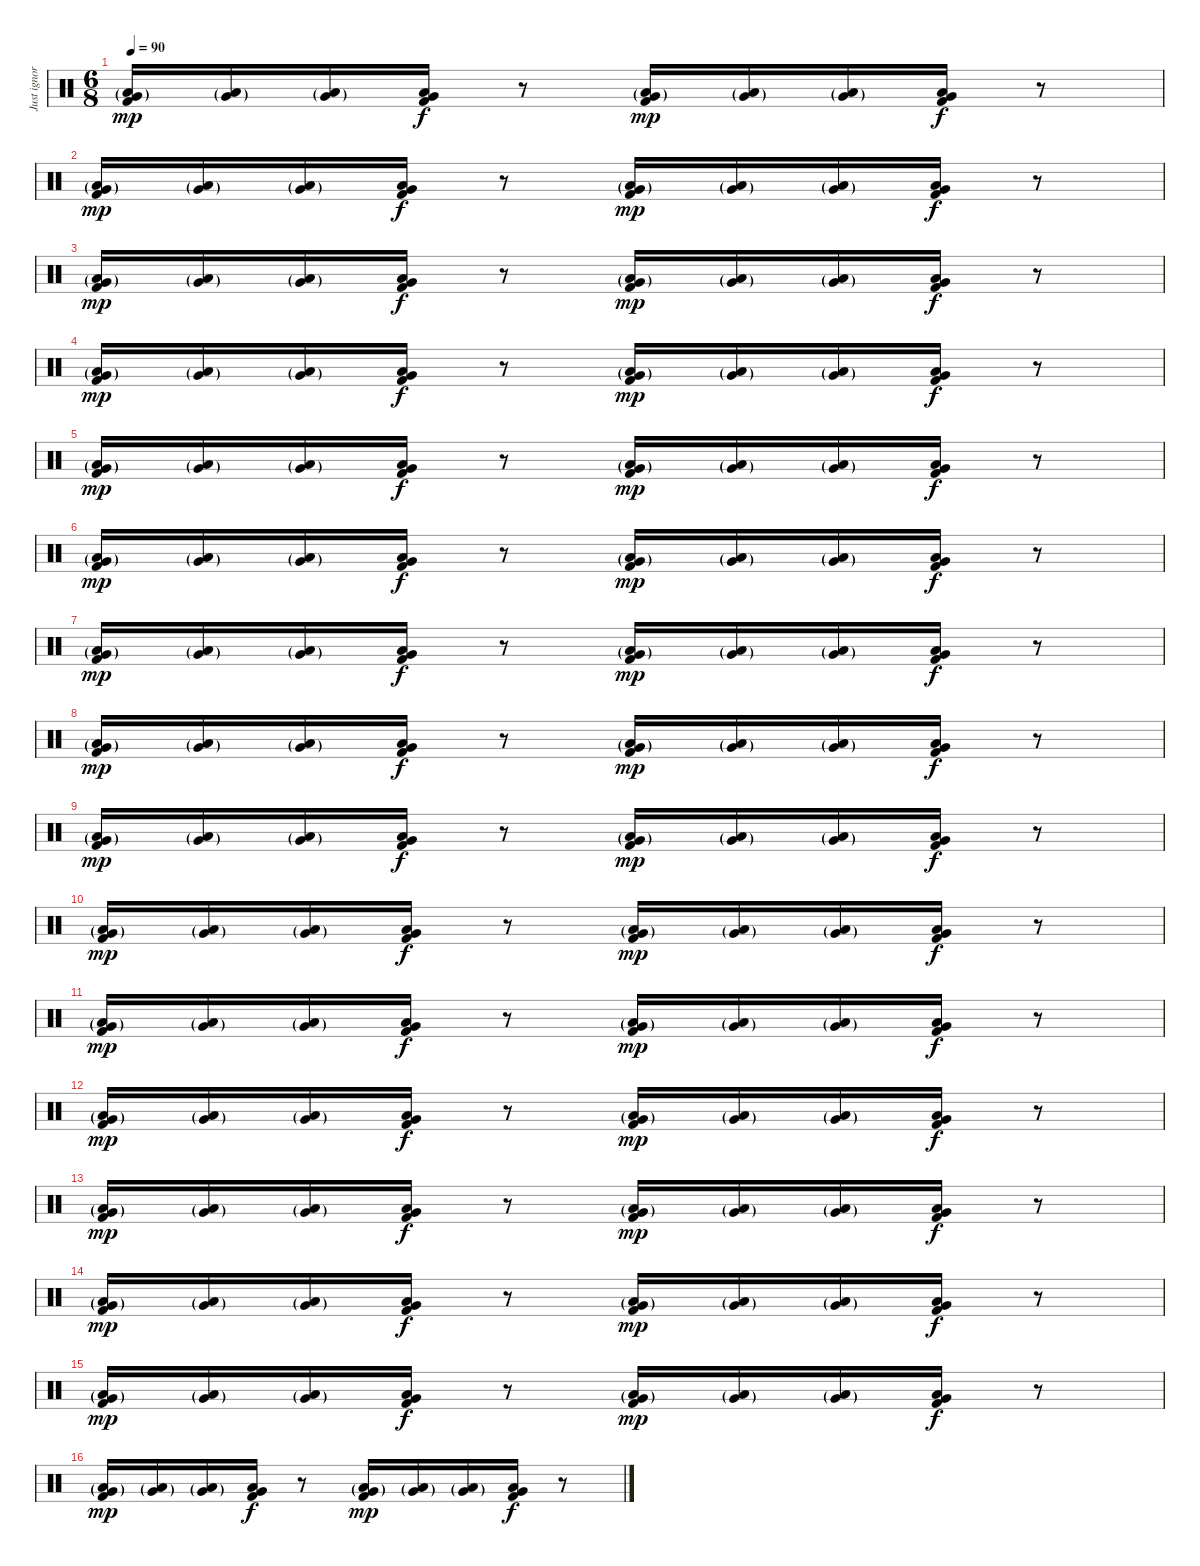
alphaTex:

\track ("Just ignore this track" "Just ignor") {instrument percussion}
\staff {score}
\articulation defaults
\ts (6 8)
\tempo 90
\tempo 85
\tempo 90
\clef neutral
\ks c
("Very Low Tom (hit)"{g} "Low Floor Tom (hit)"{g} "Kick (hit) 2").16{dy mp volume 0} ("Very Low Tom (hit)"{g} "Low Floor Tom (hit)"{g}).16 ("Very Low Tom (hit)"{g} "Low Floor Tom (hit)"{g}).16 ("Very Low Tom (hit)" "Low Floor Tom (hit)" "Kick (hit) 2").16{dy f} r.8 ("Very Low Tom (hit)"{g} "Low Floor Tom (hit)"{g} "Kick (hit) 2").16{dy mp} ("Very Low Tom (hit)"{g} "Low Floor Tom (hit)"{g}).16 ("Very Low Tom (hit)"{g} "Low Floor Tom (hit)"{g}).16 ("Very Low Tom (hit)" "Low Floor Tom (hit)" "Kick (hit) 2").16{dy f} r.8 |
("Very Low Tom (hit)"{g} "Low Floor Tom (hit)"{g} "Kick (hit) 2").16{dy mp} ("Very Low Tom (hit)"{g} "Low Floor Tom (hit)"{g}).16 ("Very Low Tom (hit)"{g} "Low Floor Tom (hit)"{g}).16 ("Very Low Tom (hit)" "Low Floor Tom (hit)" "Kick (hit) 2").16{dy f} r.8 ("Very Low Tom (hit)"{g} "Low Floor Tom (hit)"{g} "Kick (hit) 2").16{dy mp} ("Very Low Tom (hit)"{g} "Low Floor Tom (hit)"{g}).16 ("Very Low Tom (hit)"{g} "Low Floor Tom (hit)"{g}).16 ("Very Low Tom (hit)" "Low Floor Tom (hit)" "Kick (hit) 2").16{dy f} r.8 |
("Very Low Tom (hit)"{g} "Low Floor Tom (hit)"{g} "Kick (hit) 2").16{dy mp} ("Very Low Tom (hit)"{g} "Low Floor Tom (hit)"{g}).16 ("Very Low Tom (hit)"{g} "Low Floor Tom (hit)"{g}).16 ("Very Low Tom (hit)" "Low Floor Tom (hit)" "Kick (hit) 2").16{dy f} r.8 ("Very Low Tom (hit)"{g} "Low Floor Tom (hit)"{g} "Kick (hit) 2").16{dy mp} ("Very Low Tom (hit)"{g} "Low Floor Tom (hit)"{g}).16 ("Very Low Tom (hit)"{g} "Low Floor Tom (hit)"{g}).16 ("Very Low Tom (hit)" "Low Floor Tom (hit)" "Kick (hit) 2").16{dy f} r.8 |
("Very Low Tom (hit)"{g} "Low Floor Tom (hit)"{g} "Kick (hit) 2").16{dy mp} ("Very Low Tom (hit)"{g} "Low Floor Tom (hit)"{g}).16 ("Very Low Tom (hit)"{g} "Low Floor Tom (hit)"{g}).16 ("Very Low Tom (hit)" "Low Floor Tom (hit)" "Kick (hit) 2").16{dy f} r.8 ("Very Low Tom (hit)"{g} "Low Floor Tom (hit)"{g} "Kick (hit) 2").16{dy mp} ("Very Low Tom (hit)"{g} "Low Floor Tom (hit)"{g}).16 ("Very Low Tom (hit)"{g} "Low Floor Tom (hit)"{g}).16 ("Very Low Tom (hit)" "Low Floor Tom (hit)" "Kick (hit) 2").16{dy f} r.8 |
("Very Low Tom (hit)"{g} "Low Floor Tom (hit)"{g} "Kick (hit) 2").16{dy mp} ("Very Low Tom (hit)"{g} "Low Floor Tom (hit)"{g}).16 ("Very Low Tom (hit)"{g} "Low Floor Tom (hit)"{g}).16 ("Very Low Tom (hit)" "Low Floor Tom (hit)" "Kick (hit) 2").16{dy f} r.8 ("Very Low Tom (hit)"{g} "Low Floor Tom (hit)"{g} "Kick (hit) 2").16{dy mp volume 0} ("Very Low Tom (hit)"{g} "Low Floor Tom (hit)"{g}).16{volume 2} ("Very Low Tom (hit)"{g} "Low Floor Tom (hit)"{g}).16 ("Very Low Tom (hit)" "Low Floor Tom (hit)" "Kick (hit) 2").16{dy f} r.8 |
("Very Low Tom (hit)"{g} "Low Floor Tom (hit)"{g} "Kick (hit) 2").16{dy mp} ("Very Low Tom (hit)"{g} "Low Floor Tom (hit)"{g}).16 ("Very Low Tom (hit)"{g} "Low Floor Tom (hit)"{g}).16 ("Very Low Tom (hit)" "Low Floor Tom (hit)" "Kick (hit) 2").16{dy f} r.8 ("Very Low Tom (hit)"{g} "Low Floor Tom (hit)"{g} "Kick (hit) 2").16{dy mp} ("Very Low Tom (hit)"{g} "Low Floor Tom (hit)"{g}).16 ("Very Low Tom (hit)"{g} "Low Floor Tom (hit)"{g}).16 ("Very Low Tom (hit)" "Low Floor Tom (hit)" "Kick (hit) 2").16{dy f} r.8 |
("Very Low Tom (hit)"{g} "Low Floor Tom (hit)"{g} "Kick (hit) 2").16{dy mp} ("Very Low Tom (hit)"{g} "Low Floor Tom (hit)"{g}).16 ("Very Low Tom (hit)"{g} "Low Floor Tom (hit)"{g}).16 ("Very Low Tom (hit)" "Low Floor Tom (hit)" "Kick (hit) 2").16{dy f} r.8 ("Very Low Tom (hit)"{g} "Low Floor Tom (hit)"{g} "Kick (hit) 2").16{dy mp} ("Very Low Tom (hit)"{g} "Low Floor Tom (hit)"{g}).16 ("Very Low Tom (hit)"{g} "Low Floor Tom (hit)"{g}).16 ("Very Low Tom (hit)" "Low Floor Tom (hit)" "Kick (hit) 2").16{dy f} r.8 |
("Very Low Tom (hit)"{g} "Low Floor Tom (hit)"{g} "Kick (hit) 2").16{dy mp} ("Very Low Tom (hit)"{g} "Low Floor Tom (hit)"{g}).16 ("Very Low Tom (hit)"{g} "Low Floor Tom (hit)"{g}).16 ("Very Low Tom (hit)" "Low Floor Tom (hit)" "Kick (hit) 2").16{dy f} r.8 ("Very Low Tom (hit)"{g} "Low Floor Tom (hit)"{g} "Kick (hit) 2").16{dy mp} ("Very Low Tom (hit)"{g} "Low Floor Tom (hit)"{g}).16 ("Very Low Tom (hit)"{g} "Low Floor Tom (hit)"{g}).16 ("Very Low Tom (hit)" "Low Floor Tom (hit)" "Kick (hit) 2").16{dy f} r.8 |
("Very Low Tom (hit)"{g} "Low Floor Tom (hit)"{g} "Kick (hit) 2").16{dy mp volume 2} ("Very Low Tom (hit)"{g} "Low Floor Tom (hit)"{g}).16{volume 3} ("Very Low Tom (hit)"{g} "Low Floor Tom (hit)"{g}).16 ("Very Low Tom (hit)" "Low Floor Tom (hit)" "Kick (hit) 2").16{dy f} r.8 ("Very Low Tom (hit)"{g} "Low Floor Tom (hit)"{g} "Kick (hit) 2").16{dy mp} ("Very Low Tom (hit)"{g} "Low Floor Tom (hit)"{g}).16 ("Very Low Tom (hit)"{g} "Low Floor Tom (hit)"{g}).16 ("Very Low Tom (hit)" "Low Floor Tom (hit)" "Kick (hit) 2").16{dy f} r.8 |
("Very Low Tom (hit)"{g} "Low Floor Tom (hit)"{g} "Kick (hit) 2").16{dy mp} ("Very Low Tom (hit)"{g} "Low Floor Tom (hit)"{g}).16 ("Very Low Tom (hit)"{g} "Low Floor Tom (hit)"{g}).16 ("Very Low Tom (hit)" "Low Floor Tom (hit)" "Kick (hit) 2").16{dy f} r.8 ("Very Low Tom (hit)"{g} "Low Floor Tom (hit)"{g} "Kick (hit) 2").16{dy mp} ("Very Low Tom (hit)"{g} "Low Floor Tom (hit)"{g}).16 ("Very Low Tom (hit)"{g} "Low Floor Tom (hit)"{g}).16 ("Very Low Tom (hit)" "Low Floor Tom (hit)" "Kick (hit) 2").16{dy f} r.8 |
("Very Low Tom (hit)"{g} "Low Floor Tom (hit)"{g} "Kick (hit) 2").16{dy mp} ("Very Low Tom (hit)"{g} "Low Floor Tom (hit)"{g}).16 ("Very Low Tom (hit)"{g} "Low Floor Tom (hit)"{g}).16 ("Very Low Tom (hit)" "Low Floor Tom (hit)" "Kick (hit) 2").16{dy f} r.8 ("Very Low Tom (hit)"{g} "Low Floor Tom (hit)"{g} "Kick (hit) 2").16{dy mp} ("Very Low Tom (hit)"{g} "Low Floor Tom (hit)"{g}).16 ("Very Low Tom (hit)"{g} "Low Floor Tom (hit)"{g}).16 ("Very Low Tom (hit)" "Low Floor Tom (hit)" "Kick (hit) 2").16{dy f} r.8 |
("Very Low Tom (hit)"{g} "Low Floor Tom (hit)"{g} "Kick (hit) 2").16{dy mp} ("Very Low Tom (hit)"{g} "Low Floor Tom (hit)"{g}).16 ("Very Low Tom (hit)"{g} "Low Floor Tom (hit)"{g}).16 ("Very Low Tom (hit)" "Low Floor Tom (hit)" "Kick (hit) 2").16{dy f} r.8 ("Very Low Tom (hit)"{g} "Low Floor Tom (hit)"{g} "Kick (hit) 2").16{dy mp} ("Very Low Tom (hit)"{g} "Low Floor Tom (hit)"{g}).16 ("Very Low Tom (hit)"{g} "Low Floor Tom (hit)"{g}).16 ("Very Low Tom (hit)" "Low Floor Tom (hit)" "Kick (hit) 2").16{dy f} r.8 |
("Very Low Tom (hit)"{g} "Low Floor Tom (hit)"{g} "Kick (hit) 2").16{dy mp volume 3} ("Very Low Tom (hit)"{g} "Low Floor Tom (hit)"{g}).16{volume 7} ("Very Low Tom (hit)"{g} "Low Floor Tom (hit)"{g}).16 ("Very Low Tom (hit)" "Low Floor Tom (hit)" "Kick (hit) 2").16{dy f} r.8 ("Very Low Tom (hit)"{g} "Low Floor Tom (hit)"{g} "Kick (hit) 2").16{dy mp} ("Very Low Tom (hit)"{g} "Low Floor Tom (hit)"{g}).16 ("Very Low Tom (hit)"{g} "Low Floor Tom (hit)"{g}).16 ("Very Low Tom (hit)" "Low Floor Tom (hit)" "Kick (hit) 2").16{dy f} r.8 |
("Very Low Tom (hit)"{g} "Low Floor Tom (hit)"{g} "Kick (hit) 2").16{dy mp} ("Very Low Tom (hit)"{g} "Low Floor Tom (hit)"{g}).16 ("Very Low Tom (hit)"{g} "Low Floor Tom (hit)"{g}).16 ("Very Low Tom (hit)" "Low Floor Tom (hit)" "Kick (hit) 2").16{dy f} r.8 ("Very Low Tom (hit)"{g} "Low Floor Tom (hit)"{g} "Kick (hit) 2").16{dy mp} ("Very Low Tom (hit)"{g} "Low Floor Tom (hit)"{g}).16 ("Very Low Tom (hit)"{g} "Low Floor Tom (hit)"{g}).16 ("Very Low Tom (hit)" "Low Floor Tom (hit)" "Kick (hit) 2").16{dy f} r.8 |
("Very Low Tom (hit)"{g} "Low Floor Tom (hit)"{g} "Kick (hit) 2").16{dy mp} ("Very Low Tom (hit)"{g} "Low Floor Tom (hit)"{g}).16 ("Very Low Tom (hit)"{g} "Low Floor Tom (hit)"{g}).16 ("Very Low Tom (hit)" "Low Floor Tom (hit)" "Kick (hit) 2").16{dy f} r.8 ("Very Low Tom (hit)"{g} "Low Floor Tom (hit)"{g} "Kick (hit) 2").16{dy mp} ("Very Low Tom (hit)"{g} "Low Floor Tom (hit)"{g}).16 ("Very Low Tom (hit)"{g} "Low Floor Tom (hit)"{g}).16 ("Very Low Tom (hit)" "Low Floor Tom (hit)" "Kick (hit) 2").16{dy f} r.8 |
("Very Low Tom (hit)"{g} "Low Floor Tom (hit)"{g} "Kick (hit) 2").16{dy mp} ("Very Low Tom (hit)"{g} "Low Floor Tom (hit)"{g}).16 ("Very Low Tom (hit)"{g} "Low Floor Tom (hit)"{g}).16 ("Very Low Tom (hit)" "Low Floor Tom (hit)" "Kick (hit) 2").16{dy f} r.8 ("Very Low Tom (hit)"{g} "Low Floor Tom (hit)"{g} "Kick (hit) 2").16{dy mp} ("Very Low Tom (hit)"{g} "Low Floor Tom (hit)"{g}).16 ("Very Low Tom (hit)"{g} "Low Floor Tom (hit)"{g}).16 ("Very Low Tom (hit)" "Low Floor Tom (hit)" "Kick (hit) 2").16{dy f} r.8
